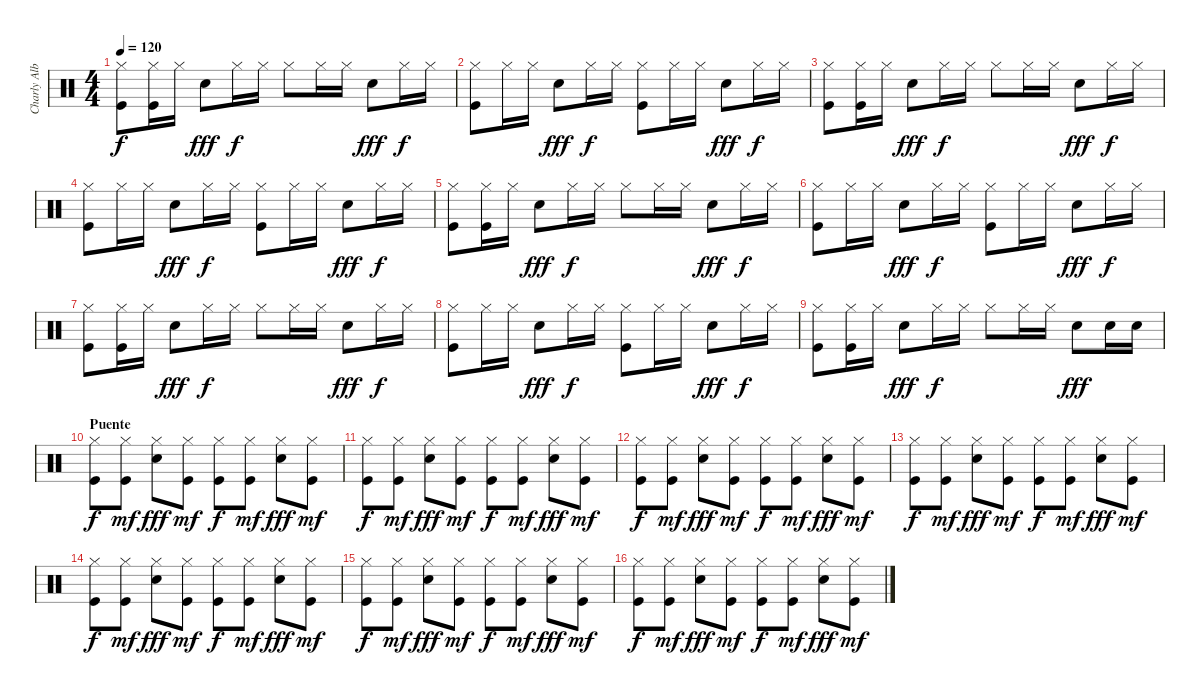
\track ("Charly Alberti" "Charly Alb") {instrument percussion}
\staff {score}
\articulation defaults
\ts (4 4)
\tempo 120
\clef neutral
\ks c
("Kick (hit)" "Hi-Hat (closed)").8{dy f} ("Kick (hit)" "Hi-Hat (closed)").16 "Hi-Hat (closed)".16 "Snare (hit) 2".8{dy fff} "Hi-Hat (closed)".16{dy f} "Hi-Hat (closed)".16 "Hi-Hat (closed)".8 "Hi-Hat (closed)".16 "Hi-Hat (closed)".16 "Snare (hit) 2".8{dy fff} "Hi-Hat (closed)".16{dy f} "Hi-Hat (closed)".16 |
("Kick (hit)" "Hi-Hat (closed)").8 "Hi-Hat (closed)".16 "Hi-Hat (closed)".16 "Snare (hit) 2".8{dy fff} "Hi-Hat (closed)".16{dy f} "Hi-Hat (closed)".16 ("Kick (hit)" "Hi-Hat (closed)").8 "Hi-Hat (closed)".16 "Hi-Hat (closed)".16 "Snare (hit) 2".8{dy fff} "Hi-Hat (closed)".16{dy f} "Hi-Hat (closed)".16 |
("Kick (hit)" "Hi-Hat (closed)").8 ("Kick (hit)" "Hi-Hat (closed)").16 "Hi-Hat (closed)".16 "Snare (hit) 2".8{dy fff} "Hi-Hat (closed)".16{dy f} "Hi-Hat (closed)".16 "Hi-Hat (closed)".8 "Hi-Hat (closed)".16 "Hi-Hat (closed)".16 "Snare (hit) 2".8{dy fff} "Hi-Hat (closed)".16{dy f} "Hi-Hat (closed)".16 |
("Kick (hit)" "Hi-Hat (closed)").8 "Hi-Hat (closed)".16 "Hi-Hat (closed)".16 "Snare (hit) 2".8{dy fff} "Hi-Hat (closed)".16{dy f} "Hi-Hat (closed)".16 ("Kick (hit)" "Hi-Hat (closed)").8 "Hi-Hat (closed)".16 "Hi-Hat (closed)".16 "Snare (hit) 2".8{dy fff} "Hi-Hat (closed)".16{dy f} "Hi-Hat (closed)".16 |
("Kick (hit)" "Hi-Hat (closed)").8 ("Kick (hit)" "Hi-Hat (closed)").16 "Hi-Hat (closed)".16 "Snare (hit) 2".8{dy fff} "Hi-Hat (closed)".16{dy f} "Hi-Hat (closed)".16 "Hi-Hat (closed)".8 "Hi-Hat (closed)".16 "Hi-Hat (closed)".16 "Snare (hit) 2".8{dy fff} "Hi-Hat (closed)".16{dy f} "Hi-Hat (closed)".16 |
("Kick (hit)" "Hi-Hat (closed)").8 "Hi-Hat (closed)".16 "Hi-Hat (closed)".16 "Snare (hit) 2".8{dy fff} "Hi-Hat (closed)".16{dy f} "Hi-Hat (closed)".16 ("Kick (hit)" "Hi-Hat (closed)").8 "Hi-Hat (closed)".16 "Hi-Hat (closed)".16 "Snare (hit) 2".8{dy fff} "Hi-Hat (closed)".16{dy f} "Hi-Hat (closed)".16 |
("Kick (hit)" "Hi-Hat (closed)").8 ("Kick (hit)" "Hi-Hat (closed)").16 "Hi-Hat (closed)".16 "Snare (hit) 2".8{dy fff} "Hi-Hat (closed)".16{dy f} "Hi-Hat (closed)".16 "Hi-Hat (closed)".8 "Hi-Hat (closed)".16 "Hi-Hat (closed)".16 "Snare (hit) 2".8{dy fff} "Hi-Hat (closed)".16{dy f} "Hi-Hat (closed)".16 |
("Kick (hit)" "Hi-Hat (closed)").8 "Hi-Hat (closed)".16 "Hi-Hat (closed)".16 "Snare (hit) 2".8{dy fff} "Hi-Hat (closed)".16{dy f} "Hi-Hat (closed)".16 ("Kick (hit)" "Hi-Hat (closed)").8 "Hi-Hat (closed)".16 "Hi-Hat (closed)".16 "Snare (hit) 2".8{dy fff} "Hi-Hat (closed)".16{dy f} "Hi-Hat (closed)".16 |
("Kick (hit)" "Hi-Hat (closed)").8 ("Kick (hit)" "Hi-Hat (closed)").16 "Hi-Hat (closed)".16 "Snare (hit) 2".8{dy fff} "Hi-Hat (closed)".16{dy f} "Hi-Hat (closed)".16 "Hi-Hat (closed)".8 "Hi-Hat (closed)".16 "Hi-Hat (closed)".16 "Snare (hit) 2".8{dy fff} "Snare (hit) 2".16 "Snare (hit) 2".16 |
\section ("" "Puente")
("Kick (hit)" "Hi-Hat (closed)").8{dy f} ("Kick (hit)" "Hi-Hat (closed)").8{dy mf} ("Snare (hit) 2" "Hi-Hat (closed)").8{dy fff} ("Kick (hit)" "Hi-Hat (closed)").8{dy mf} ("Kick (hit)" "Hi-Hat (closed)").8{dy f} ("Kick (hit)" "Hi-Hat (closed)").8{dy mf} ("Snare (hit) 2" "Hi-Hat (closed)").8{dy fff} ("Kick (hit)" "Hi-Hat (closed)").8{dy mf} |
("Kick (hit)" "Hi-Hat (closed)").8{dy f} ("Kick (hit)" "Hi-Hat (closed)").8{dy mf} ("Snare (hit) 2" "Hi-Hat (closed)").8{dy fff} ("Kick (hit)" "Hi-Hat (closed)").8{dy mf} ("Kick (hit)" "Hi-Hat (closed)").8{dy f} ("Kick (hit)" "Hi-Hat (closed)").8{dy mf} ("Snare (hit) 2" "Hi-Hat (closed)").8{dy fff} ("Kick (hit)" "Hi-Hat (closed)").8{dy mf} |
("Kick (hit)" "Hi-Hat (closed)").8{dy f} ("Kick (hit)" "Hi-Hat (closed)").8{dy mf} ("Snare (hit) 2" "Hi-Hat (closed)").8{dy fff} ("Kick (hit)" "Hi-Hat (closed)").8{dy mf} ("Kick (hit)" "Hi-Hat (closed)").8{dy f} ("Kick (hit)" "Hi-Hat (closed)").8{dy mf} ("Snare (hit) 2" "Hi-Hat (closed)").8{dy fff} ("Kick (hit)" "Hi-Hat (closed)").8{dy mf} |
("Kick (hit)" "Hi-Hat (closed)").8{dy f} ("Kick (hit)" "Hi-Hat (closed)").8{dy mf} ("Snare (hit) 2" "Hi-Hat (closed)").8{dy fff} ("Kick (hit)" "Hi-Hat (closed)").8{dy mf} ("Kick (hit)" "Hi-Hat (closed)").8{dy f} ("Kick (hit)" "Hi-Hat (closed)").8{dy mf} ("Snare (hit) 2" "Hi-Hat (closed)").8{dy fff} ("Kick (hit)" "Hi-Hat (closed)").8{dy mf} |
("Kick (hit)" "Hi-Hat (closed)").8{dy f} ("Kick (hit)" "Hi-Hat (closed)").8{dy mf} ("Snare (hit) 2" "Hi-Hat (closed)").8{dy fff} ("Kick (hit)" "Hi-Hat (closed)").8{dy mf} ("Kick (hit)" "Hi-Hat (closed)").8{dy f} ("Kick (hit)" "Hi-Hat (closed)").8{dy mf} ("Snare (hit) 2" "Hi-Hat (closed)").8{dy fff} ("Kick (hit)" "Hi-Hat (closed)").8{dy mf} |
("Kick (hit)" "Hi-Hat (closed)").8{dy f} ("Kick (hit)" "Hi-Hat (closed)").8{dy mf} ("Snare (hit) 2" "Hi-Hat (closed)").8{dy fff} ("Kick (hit)" "Hi-Hat (closed)").8{dy mf} ("Kick (hit)" "Hi-Hat (closed)").8{dy f} ("Kick (hit)" "Hi-Hat (closed)").8{dy mf} ("Snare (hit) 2" "Hi-Hat (closed)").8{dy fff} ("Kick (hit)" "Hi-Hat (closed)").8{dy mf} |
("Kick (hit)" "Hi-Hat (closed)").8{dy f} ("Kick (hit)" "Hi-Hat (closed)").8{dy mf} ("Snare (hit) 2" "Hi-Hat (closed)").8{dy fff} ("Kick (hit)" "Hi-Hat (closed)").8{dy mf} ("Kick (hit)" "Hi-Hat (closed)").8{dy f} ("Kick (hit)" "Hi-Hat (closed)").8{dy mf} ("Snare (hit) 2" "Hi-Hat (closed)").8{dy fff} ("Kick (hit)" "Hi-Hat (closed)").8{dy mf}
